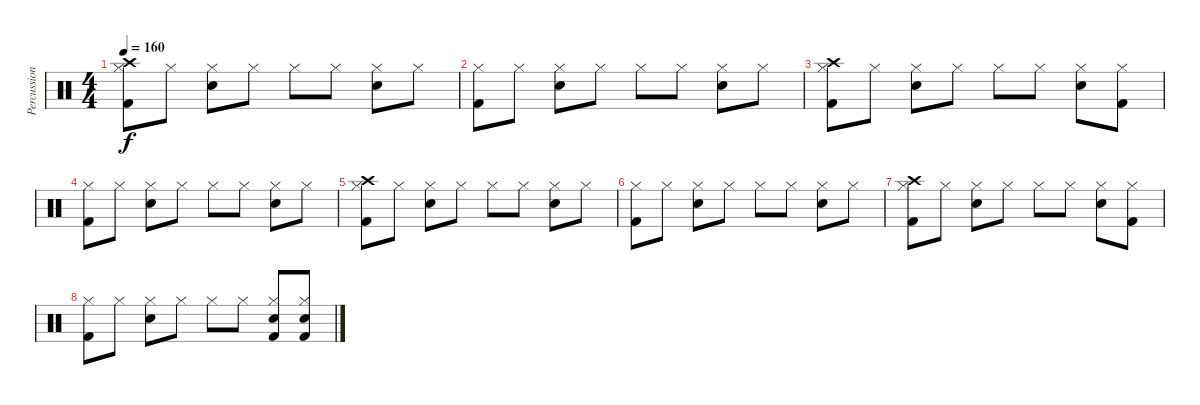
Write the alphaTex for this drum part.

\track ("Percussion" "Percussion") {instrument percussion}
\staff {score}
\articulation defaults
\ts (4 4)
\tempo 160
\clef neutral
\ks c
("Kick (hit) 2" "Hi-Hat (closed)" "Crash high (hit)").8{dy f} "Hi-Hat (closed)".8 ("Snare (hit) 2" "Hi-Hat (closed)").8 "Hi-Hat (closed)".8 "Hi-Hat (closed)".8 "Hi-Hat (closed)".8 ("Snare (hit) 2" "Hi-Hat (closed)").8 "Hi-Hat (closed)".8 |
("Kick (hit) 2" "Hi-Hat (closed)").8 "Hi-Hat (closed)".8 ("Snare (hit) 2" "Hi-Hat (closed)").8 "Hi-Hat (closed)".8 "Hi-Hat (closed)".8 "Hi-Hat (closed)".8 ("Snare (hit) 2" "Hi-Hat (closed)").8 "Hi-Hat (closed)".8 |
("Kick (hit) 2" "Hi-Hat (closed)" "Crash high (hit)").8 "Hi-Hat (closed)".8 ("Snare (hit) 2" "Hi-Hat (closed)").8 "Hi-Hat (closed)".8 "Hi-Hat (closed)".8 "Hi-Hat (closed)".8 ("Snare (hit) 2" "Hi-Hat (closed)").8 ("Kick (hit) 2" "Hi-Hat (closed)").8 |
("Kick (hit) 2" "Hi-Hat (closed)").8 "Hi-Hat (closed)".8 ("Snare (hit) 2" "Hi-Hat (closed)").8 "Hi-Hat (closed)".8 "Hi-Hat (closed)".8 "Hi-Hat (closed)".8 ("Snare (hit) 2" "Hi-Hat (closed)").8 "Hi-Hat (closed)".8 |
("Kick (hit) 2" "Hi-Hat (closed)" "Crash high (hit)").8 "Hi-Hat (closed)".8 ("Snare (hit) 2" "Hi-Hat (closed)").8 "Hi-Hat (closed)".8 "Hi-Hat (closed)".8 "Hi-Hat (closed)".8 ("Snare (hit) 2" "Hi-Hat (closed)").8 "Hi-Hat (closed)".8 |
("Kick (hit) 2" "Hi-Hat (closed)").8 "Hi-Hat (closed)".8 ("Snare (hit) 2" "Hi-Hat (closed)").8 "Hi-Hat (closed)".8 "Hi-Hat (closed)".8 "Hi-Hat (closed)".8 ("Snare (hit) 2" "Hi-Hat (closed)").8 "Hi-Hat (closed)".8 |
("Kick (hit) 2" "Hi-Hat (closed)" "Crash high (hit)").8 "Hi-Hat (closed)".8 ("Snare (hit) 2" "Hi-Hat (closed)").8 "Hi-Hat (closed)".8 "Hi-Hat (closed)".8 "Hi-Hat (closed)".8 ("Snare (hit) 2" "Hi-Hat (closed)").8 ("Kick (hit) 2" "Hi-Hat (closed)").8 |
("Kick (hit) 2" "Hi-Hat (closed)").8 "Hi-Hat (closed)".8 ("Snare (hit) 2" "Hi-Hat (closed)").8 "Hi-Hat (closed)".8 "Hi-Hat (closed)".8 "Hi-Hat (closed)".8 ("Snare (hit) 2" "Hi-Hat (closed)" "Kick (hit) 2").8 ("Snare (hit) 2" "Hi-Hat (closed)" "Kick (hit) 2").8
